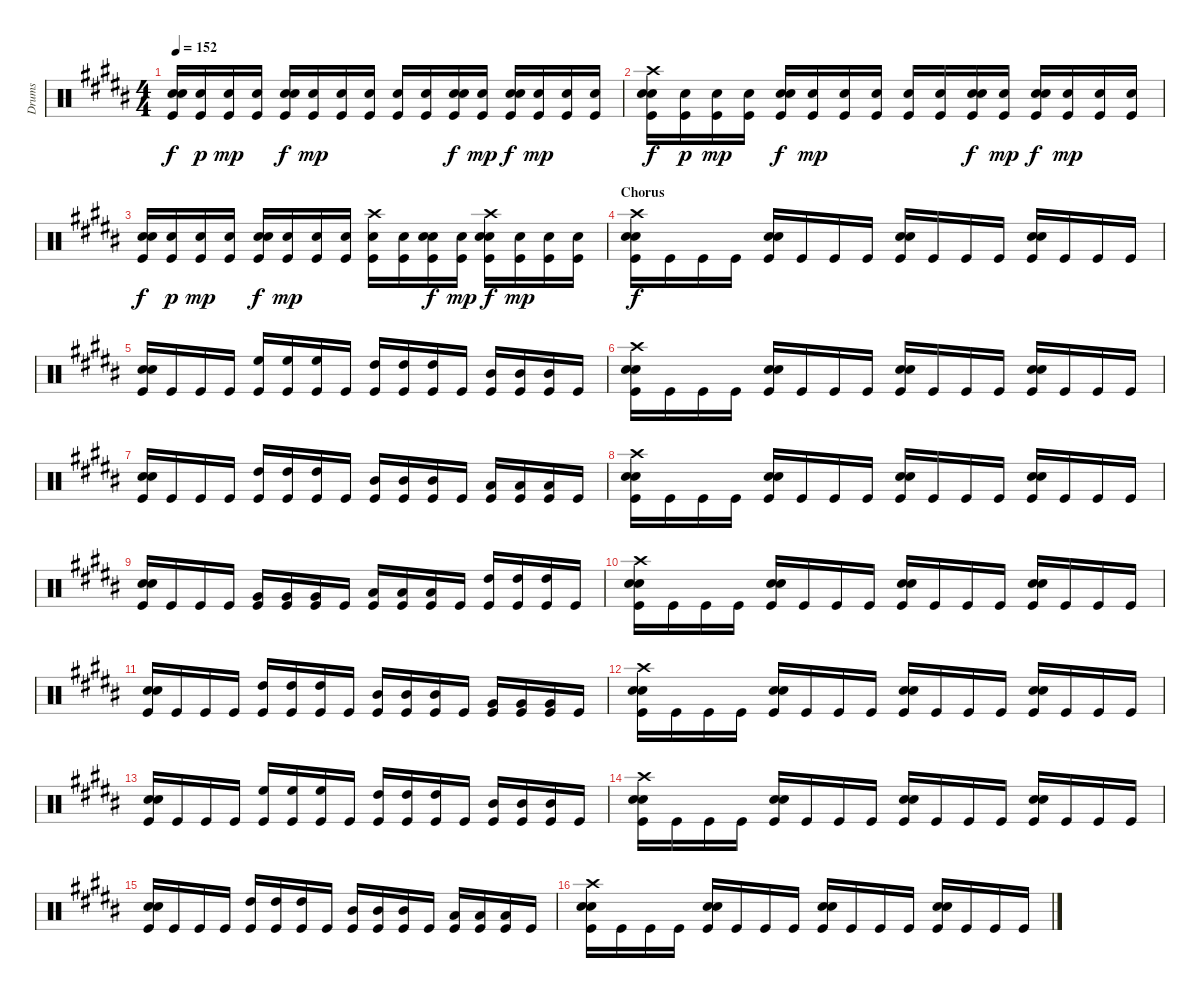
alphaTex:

\track ("Drums" "Drums") {instrument percussion}
\staff {score}
\articulation defaults
\ts (4 4)
\tempo 152
\clef neutral
\ks b
("Electric Snare (hit)" "Snare (hit) 2" "Kick (hit)").16{dy f} ("Snare (hit) 2" "Kick (hit)").16{dy p} ("Snare (hit) 2" "Kick (hit)").16{dy mp} ("Snare (hit) 2" "Kick (hit)").16 ("Electric Snare (hit)" "Snare (hit) 2" "Kick (hit)").16{dy f} ("Snare (hit) 2" "Kick (hit)").16{dy mp} ("Snare (hit) 2" "Kick (hit)").16 ("Snare (hit) 2" "Kick (hit)").16 ("Snare (hit) 2" "Kick (hit)").16 ("Snare (hit) 2" "Kick (hit)").16 ("Electric Snare (hit)" "Snare (hit) 2" "Kick (hit)").16{dy f} ("Snare (hit) 2" "Kick (hit)").16{dy mp} ("Electric Snare (hit)" "Snare (hit) 2" "Kick (hit)").16{dy f} ("Snare (hit) 2" "Kick (hit)").16{dy mp} ("Snare (hit) 2" "Kick (hit)").16 ("Snare (hit) 2" "Kick (hit)").16 |
("Crash high (hit)" "Electric Snare (hit)" "Snare (hit) 2" "Kick (hit)").16{dy f} ("Snare (hit) 2" "Kick (hit)").16{dy p} ("Snare (hit) 2" "Kick (hit)").16{dy mp} ("Snare (hit) 2" "Kick (hit)").16 ("Electric Snare (hit)" "Snare (hit) 2" "Kick (hit)").16{dy f} ("Snare (hit) 2" "Kick (hit)").16{dy mp} ("Snare (hit) 2" "Kick (hit)").16 ("Snare (hit) 2" "Kick (hit)").16 ("Snare (hit) 2" "Kick (hit)").16 ("Snare (hit) 2" "Kick (hit)").16 ("Electric Snare (hit)" "Snare (hit) 2" "Kick (hit)").16{dy f} ("Snare (hit) 2" "Kick (hit)").16{dy mp} ("Electric Snare (hit)" "Snare (hit) 2" "Kick (hit)").16{dy f} ("Snare (hit) 2" "Kick (hit)").16{dy mp} ("Snare (hit) 2" "Kick (hit)").16 ("Snare (hit) 2" "Kick (hit)").16 |
("Electric Snare (hit)" "Snare (hit) 2" "Kick (hit)").16{dy f} ("Snare (hit) 2" "Kick (hit)").16{dy p} ("Snare (hit) 2" "Kick (hit)").16{dy mp} ("Snare (hit) 2" "Kick (hit)").16 ("Electric Snare (hit)" "Snare (hit) 2" "Kick (hit)").16{dy f} ("Snare (hit) 2" "Kick (hit)").16{dy mp} ("Snare (hit) 2" "Kick (hit)").16 ("Snare (hit) 2" "Kick (hit)").16 ("Crash high (hit)" "Snare (hit) 2" "Kick (hit)").16 ("Snare (hit) 2" "Kick (hit)").16 ("Electric Snare (hit)" "Snare (hit) 2" "Kick (hit)").16{dy f} ("Snare (hit) 2" "Kick (hit)").16{dy mp} ("Crash high (hit)" "Electric Snare (hit)" "Snare (hit) 2" "Kick (hit)").16{dy f} ("Snare (hit) 2" "Kick (hit)").16{dy mp} ("Snare (hit) 2" "Kick (hit)").16 ("Snare (hit) 2" "Kick (hit)").16 |
\section ("" "Chorus")
("Crash high (hit)" "Snare (hit) 2" "Electric Snare (hit)" "Kick (hit)").16{dy f} "Kick (hit)".16 "Kick (hit)".16 "Kick (hit)".16 ("Snare (hit) 2" "Electric Snare (hit)" "Kick (hit)").16 "Kick (hit)".16 "Kick (hit)".16 "Kick (hit)".16 ("Snare (hit) 2" "Electric Snare (hit)" "Kick (hit)").16 "Kick (hit)".16 "Kick (hit)".16 "Kick (hit)".16 ("Snare (hit) 2" "Electric Snare (hit)" "Kick (hit)").16 "Kick (hit)".16 "Kick (hit)".16 "Kick (hit)".16 |
("Snare (hit) 2" "Electric Snare (hit)" "Kick (hit)").16 "Kick (hit)".16 "Kick (hit)".16 "Kick (hit)".16 ("High Floor Tom (hit)" "Kick (hit)").16 ("High Floor Tom (hit)" "Kick (hit)").16 ("High Floor Tom (hit)" "Kick (hit)").16 "Kick (hit)".16 ("High Tom (hit)" "Kick (hit)").16 ("High Tom (hit)" "Kick (hit)").16 ("High Tom (hit)" "Kick (hit)").16 "Kick (hit)".16 ("Mid Tom (hit)" "Kick (hit)").16 ("Mid Tom (hit)" "Kick (hit)").16 ("Mid Tom (hit)" "Kick (hit)").16 "Kick (hit)".16 |
("Crash high (hit)" "Snare (hit) 2" "Electric Snare (hit)" "Kick (hit)").16 "Kick (hit)".16 "Kick (hit)".16 "Kick (hit)".16 ("Snare (hit) 2" "Electric Snare (hit)" "Kick (hit)").16 "Kick (hit)".16 "Kick (hit)".16 "Kick (hit)".16 ("Snare (hit) 2" "Electric Snare (hit)" "Kick (hit)").16 "Kick (hit)".16 "Kick (hit)".16 "Kick (hit)".16 ("Snare (hit) 2" "Electric Snare (hit)" "Kick (hit)").16 "Kick (hit)".16 "Kick (hit)".16 "Kick (hit)".16 |
("Snare (hit) 2" "Electric Snare (hit)" "Kick (hit)").16 "Kick (hit)".16 "Kick (hit)".16 "Kick (hit)".16 ("High Tom (hit)" "Kick (hit)").16 ("High Tom (hit)" "Kick (hit)").16 ("High Tom (hit)" "Kick (hit)").16 "Kick (hit)".16 ("Mid Tom (hit)" "Kick (hit)").16 ("Mid Tom (hit)" "Kick (hit)").16 ("Mid Tom (hit)" "Kick (hit)").16 "Kick (hit)".16 ("Low Tom (hit)" "Kick (hit)").16 ("Low Tom (hit)" "Kick (hit)").16 ("Low Tom (hit)" "Kick (hit)").16 "Kick (hit)".16 |
("Crash high (hit)" "Snare (hit) 2" "Electric Snare (hit)" "Kick (hit)").16 "Kick (hit)".16 "Kick (hit)".16 "Kick (hit)".16 ("Snare (hit) 2" "Electric Snare (hit)" "Kick (hit)").16 "Kick (hit)".16 "Kick (hit)".16 "Kick (hit)".16 ("Snare (hit) 2" "Electric Snare (hit)" "Kick (hit)").16 "Kick (hit)".16 "Kick (hit)".16 "Kick (hit)".16 ("Snare (hit) 2" "Electric Snare (hit)" "Kick (hit)").16 "Kick (hit)".16 "Kick (hit)".16 "Kick (hit)".16 |
("Snare (hit) 2" "Electric Snare (hit)" "Kick (hit)").16 "Kick (hit)".16 "Kick (hit)".16 "Kick (hit)".16 ("Very Low Tom (hit)" "Kick (hit)").16 ("Very Low Tom (hit)" "Kick (hit)").16 ("Very Low Tom (hit)" "Kick (hit)").16 "Kick (hit)".16 ("Low Tom (hit)" "Kick (hit)").16 ("Low Tom (hit)" "Kick (hit)").16 ("Low Tom (hit)" "Kick (hit)").16 "Kick (hit)".16 ("High Tom (hit)" "Kick (hit)").16 ("High Tom (hit)" "Kick (hit)").16 ("High Tom (hit)" "Kick (hit)").16 "Kick (hit)".16 |
("Crash high (hit)" "Snare (hit) 2" "Electric Snare (hit)" "Kick (hit)").16 "Kick (hit)".16 "Kick (hit)".16 "Kick (hit)".16 ("Snare (hit) 2" "Electric Snare (hit)" "Kick (hit)").16 "Kick (hit)".16 "Kick (hit)".16 "Kick (hit)".16 ("Snare (hit) 2" "Electric Snare (hit)" "Kick (hit)").16 "Kick (hit)".16 "Kick (hit)".16 "Kick (hit)".16 ("Snare (hit) 2" "Electric Snare (hit)" "Kick (hit)").16 "Kick (hit)".16 "Kick (hit)".16 "Kick (hit)".16 |
("Snare (hit) 2" "Electric Snare (hit)" "Kick (hit)").16 "Kick (hit)".16 "Kick (hit)".16 "Kick (hit)".16 ("High Tom (hit)" "Kick (hit)").16 ("High Tom (hit)" "Kick (hit)").16 ("High Tom (hit)" "Kick (hit)").16 "Kick (hit)".16 ("Mid Tom (hit)" "Kick (hit)").16 ("Mid Tom (hit)" "Kick (hit)").16 ("Mid Tom (hit)" "Kick (hit)").16 "Kick (hit)".16 ("Very Low Tom (hit)" "Kick (hit)").16 ("Very Low Tom (hit)" "Kick (hit)").16 ("Very Low Tom (hit)" "Kick (hit)").16 "Kick (hit)".16 |
("Crash high (hit)" "Snare (hit) 2" "Electric Snare (hit)" "Kick (hit)").16 "Kick (hit)".16 "Kick (hit)".16 "Kick (hit)".16 ("Snare (hit) 2" "Electric Snare (hit)" "Kick (hit)").16 "Kick (hit)".16 "Kick (hit)".16 "Kick (hit)".16 ("Snare (hit) 2" "Electric Snare (hit)" "Kick (hit)").16 "Kick (hit)".16 "Kick (hit)".16 "Kick (hit)".16 ("Snare (hit) 2" "Electric Snare (hit)" "Kick (hit)").16 "Kick (hit)".16 "Kick (hit)".16 "Kick (hit)".16 |
("Snare (hit) 2" "Electric Snare (hit)" "Kick (hit)").16 "Kick (hit)".16 "Kick (hit)".16 "Kick (hit)".16 ("High Floor Tom (hit)" "Kick (hit)").16 ("High Floor Tom (hit)" "Kick (hit)").16 ("High Floor Tom (hit)" "Kick (hit)").16 "Kick (hit)".16 ("High Tom (hit)" "Kick (hit)").16 ("High Tom (hit)" "Kick (hit)").16 ("High Tom (hit)" "Kick (hit)").16 "Kick (hit)".16 ("Mid Tom (hit)" "Kick (hit)").16 ("Mid Tom (hit)" "Kick (hit)").16 ("Mid Tom (hit)" "Kick (hit)").16 "Kick (hit)".16 |
("Crash high (hit)" "Snare (hit) 2" "Electric Snare (hit)" "Kick (hit)").16 "Kick (hit)".16 "Kick (hit)".16 "Kick (hit)".16 ("Snare (hit) 2" "Electric Snare (hit)" "Kick (hit)").16 "Kick (hit)".16 "Kick (hit)".16 "Kick (hit)".16 ("Snare (hit) 2" "Electric Snare (hit)" "Kick (hit)").16 "Kick (hit)".16 "Kick (hit)".16 "Kick (hit)".16 ("Snare (hit) 2" "Electric Snare (hit)" "Kick (hit)").16 "Kick (hit)".16 "Kick (hit)".16 "Kick (hit)".16 |
("Snare (hit) 2" "Electric Snare (hit)" "Kick (hit)").16 "Kick (hit)".16 "Kick (hit)".16 "Kick (hit)".16 ("High Tom (hit)" "Kick (hit)").16 ("High Tom (hit)" "Kick (hit)").16 ("High Tom (hit)" "Kick (hit)").16 "Kick (hit)".16 ("Mid Tom (hit)" "Kick (hit)").16 ("Mid Tom (hit)" "Kick (hit)").16 ("Mid Tom (hit)" "Kick (hit)").16 "Kick (hit)".16 ("Low Tom (hit)" "Kick (hit)").16 ("Low Tom (hit)" "Kick (hit)").16 ("Low Tom (hit)" "Kick (hit)").16 "Kick (hit)".16 |
("Crash high (hit)" "Snare (hit) 2" "Electric Snare (hit)" "Kick (hit)").16 "Kick (hit)".16 "Kick (hit)".16 "Kick (hit)".16 ("Snare (hit) 2" "Electric Snare (hit)" "Kick (hit)").16 "Kick (hit)".16 "Kick (hit)".16 "Kick (hit)".16 ("Snare (hit) 2" "Electric Snare (hit)" "Kick (hit)").16 "Kick (hit)".16 "Kick (hit)".16 "Kick (hit)".16 ("Snare (hit) 2" "Electric Snare (hit)" "Kick (hit)").16 "Kick (hit)".16 "Kick (hit)".16 "Kick (hit)".16
